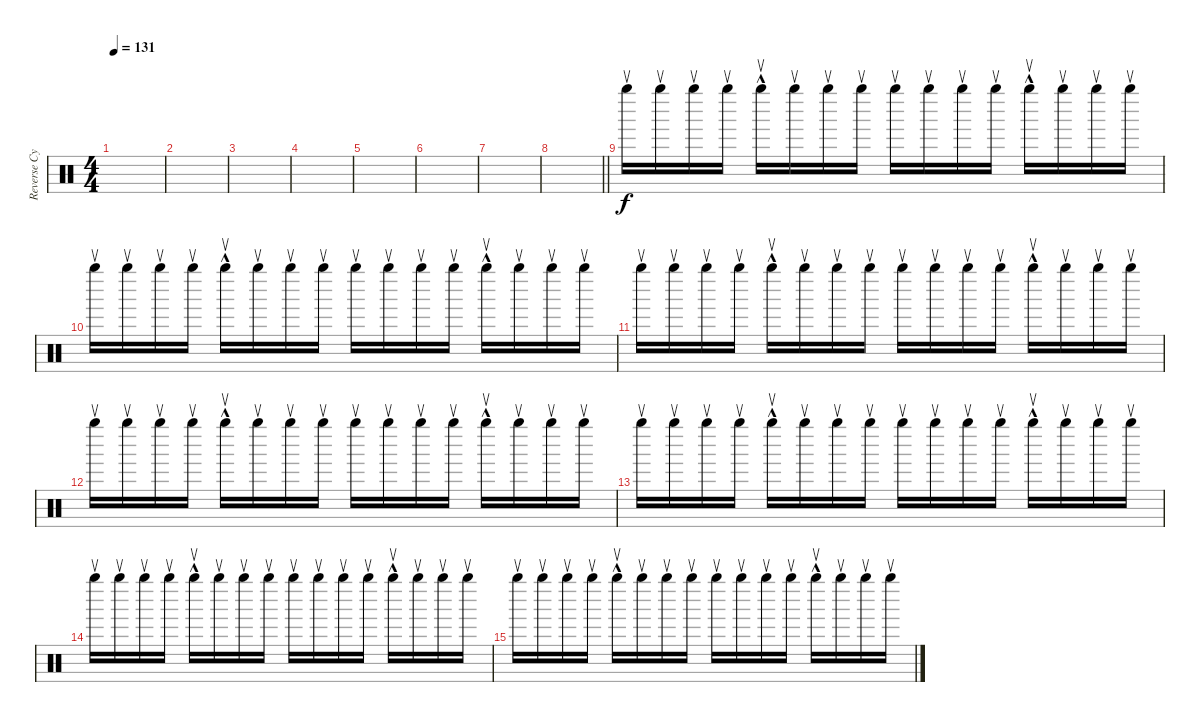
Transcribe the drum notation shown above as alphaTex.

\track ("Reverse Cymbal" "Reverse Cy") {instrument percussion}
\staff {score}
\articulation defaults
\ts (4 4)
\tempo 131
\clef neutral
\ks c
|
|
|
|
|
|
|
\barLineRight lightlight
|
"Right Maraca (return)".16 "Right Maraca (return)".16 "Right Maraca (return)".16 "Right Maraca (return)".16 "Right Maraca (return)"{hac}.16 "Right Maraca (return)".16 "Right Maraca (return)".16 "Right Maraca (return)".16 "Right Maraca (return)".16 "Right Maraca (return)".16 "Right Maraca (return)".16 "Right Maraca (return)".16 "Right Maraca (return)"{hac}.16 "Right Maraca (return)".16 "Right Maraca (return)".16 "Right Maraca (return)".16 |
"Right Maraca (return)".16 "Right Maraca (return)".16 "Right Maraca (return)".16 "Right Maraca (return)".16 "Right Maraca (return)"{hac}.16 "Right Maraca (return)".16 "Right Maraca (return)".16 "Right Maraca (return)".16 "Right Maraca (return)".16 "Right Maraca (return)".16 "Right Maraca (return)".16 "Right Maraca (return)".16 "Right Maraca (return)"{hac}.16 "Right Maraca (return)".16 "Right Maraca (return)".16 "Right Maraca (return)".16 |
"Right Maraca (return)".16 "Right Maraca (return)".16 "Right Maraca (return)".16 "Right Maraca (return)".16 "Right Maraca (return)"{hac}.16 "Right Maraca (return)".16 "Right Maraca (return)".16 "Right Maraca (return)".16 "Right Maraca (return)".16 "Right Maraca (return)".16 "Right Maraca (return)".16 "Right Maraca (return)".16 "Right Maraca (return)"{hac}.16 "Right Maraca (return)".16 "Right Maraca (return)".16 "Right Maraca (return)".16 |
"Right Maraca (return)".16 "Right Maraca (return)".16 "Right Maraca (return)".16 "Right Maraca (return)".16 "Right Maraca (return)"{hac}.16 "Right Maraca (return)".16 "Right Maraca (return)".16 "Right Maraca (return)".16 "Right Maraca (return)".16 "Right Maraca (return)".16 "Right Maraca (return)".16 "Right Maraca (return)".16 "Right Maraca (return)"{hac}.16 "Right Maraca (return)".16 "Right Maraca (return)".16 "Right Maraca (return)".16 |
"Right Maraca (return)".16 "Right Maraca (return)".16 "Right Maraca (return)".16 "Right Maraca (return)".16 "Right Maraca (return)"{hac}.16 "Right Maraca (return)".16 "Right Maraca (return)".16 "Right Maraca (return)".16 "Right Maraca (return)".16 "Right Maraca (return)".16 "Right Maraca (return)".16 "Right Maraca (return)".16 "Right Maraca (return)"{hac}.16 "Right Maraca (return)".16 "Right Maraca (return)".16 "Right Maraca (return)".16 |
"Right Maraca (return)".16 "Right Maraca (return)".16 "Right Maraca (return)".16 "Right Maraca (return)".16 "Right Maraca (return)"{hac}.16 "Right Maraca (return)".16 "Right Maraca (return)".16 "Right Maraca (return)".16 "Right Maraca (return)".16 "Right Maraca (return)".16 "Right Maraca (return)".16 "Right Maraca (return)".16 "Right Maraca (return)"{hac}.16 "Right Maraca (return)".16 "Right Maraca (return)".16 "Right Maraca (return)".16 |
"Right Maraca (return)".16 "Right Maraca (return)".16 "Right Maraca (return)".16 "Right Maraca (return)".16 "Right Maraca (return)"{hac}.16 "Right Maraca (return)".16 "Right Maraca (return)".16 "Right Maraca (return)".16 "Right Maraca (return)".16 "Right Maraca (return)".16 "Right Maraca (return)".16 "Right Maraca (return)".16 "Right Maraca (return)"{hac}.16 "Right Maraca (return)".16 "Right Maraca (return)".16 "Right Maraca (return)".16
